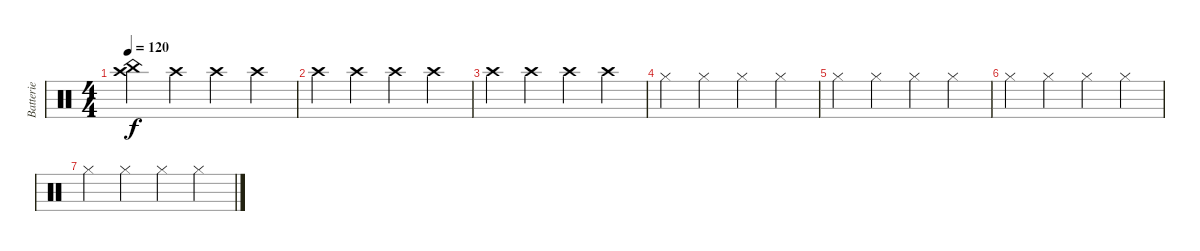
\track ("Batterie" "Batterie") {instrument percussion}
\staff {score}
\articulation defaults
\ts (4 4)
\tempo 120
\clef neutral
\ks c
("China (hit)" "Crash high (hit)").4{dy f} "Crash high (hit)".4 "Crash high (hit)".4 "Crash high (hit)".4 |
"Crash high (hit)".4 "Crash high (hit)".4 "Crash high (hit)".4 "Crash high (hit)".4 |
"Crash high (hit)".4 "Crash high (hit)".4 "Crash high (hit)".4 "Crash high (hit)".4 |
"Hi-Hat (closed)".4 "Hi-Hat (closed)".4 "Hi-Hat (closed)".4 "Hi-Hat (closed)".4 |
"Hi-Hat (closed)".4 "Hi-Hat (closed)".4 "Hi-Hat (closed)".4 "Hi-Hat (closed)".4 |
"Hi-Hat (closed)".4 "Hi-Hat (closed)".4 "Hi-Hat (closed)".4 "Hi-Hat (closed)".4 |
"Hi-Hat (closed)".4 "Hi-Hat (closed)".4 "Hi-Hat (closed)".4 "Hi-Hat (closed)".4
